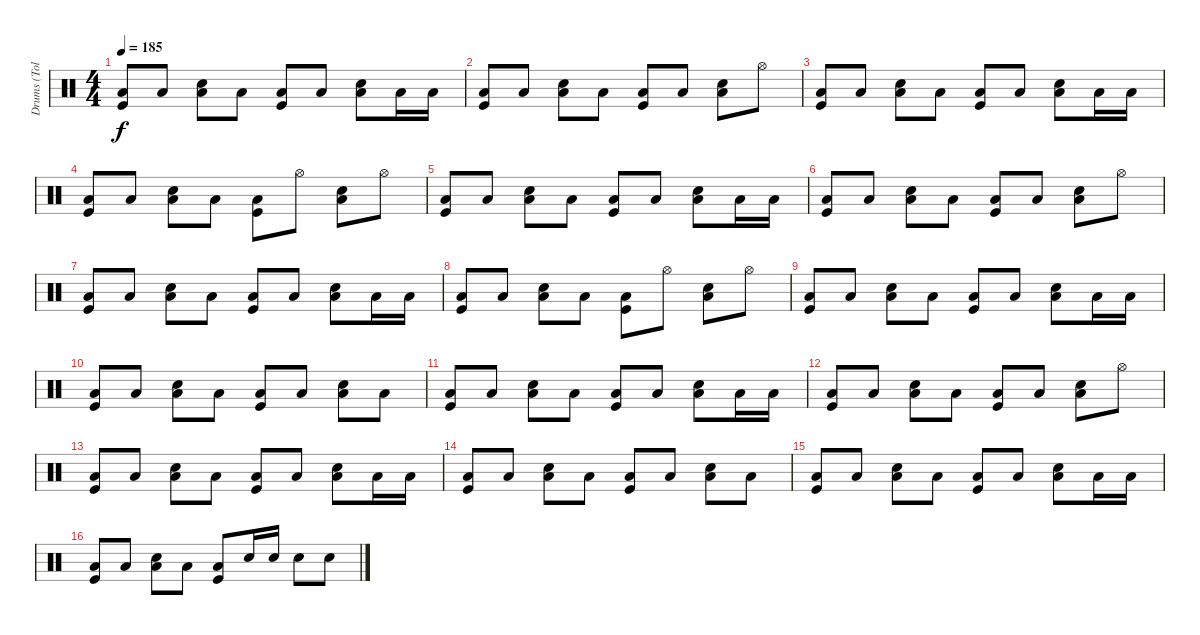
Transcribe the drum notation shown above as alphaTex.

\track ("Drums (Tolik)" "Drums (Tol") {instrument percussion}
\staff {score}
\articulation defaults
\ts (4 4)
\tempo 185
\clef neutral
\ks c
("Low Floor Tom (hit)" "Kick (hit)").8{dy f} "Low Floor Tom (hit)".8 ("Low Floor Tom (hit)" "Electric Snare (hit)").8 "Low Floor Tom (hit)".8 ("Low Floor Tom (hit)" "Kick (hit)").8 "Low Floor Tom (hit)".8 ("Low Floor Tom (hit)" "Electric Snare (hit)").8 "Low Floor Tom (hit)".16 "Low Floor Tom (hit)".16 |
("Low Floor Tom (hit)" "Kick (hit)").8 "Low Floor Tom (hit)".8 ("Low Floor Tom (hit)" "Electric Snare (hit)").8 "Low Floor Tom (hit)".8 ("Low Floor Tom (hit)" "Kick (hit)").8 "Low Floor Tom (hit)".8 ("Low Floor Tom (hit)" "Electric Snare (hit)").8 "Hi-Hat (open)".8 |
("Low Floor Tom (hit)" "Kick (hit)").8 "Low Floor Tom (hit)".8 ("Low Floor Tom (hit)" "Electric Snare (hit)").8 "Low Floor Tom (hit)".8 ("Low Floor Tom (hit)" "Kick (hit)").8 "Low Floor Tom (hit)".8 ("Low Floor Tom (hit)" "Electric Snare (hit)").8 "Low Floor Tom (hit)".16 "Low Floor Tom (hit)".16 |
("Low Floor Tom (hit)" "Kick (hit)").8 "Low Floor Tom (hit)".8 ("Low Floor Tom (hit)" "Electric Snare (hit)").8 "Low Floor Tom (hit)".8 ("Low Floor Tom (hit)" "Kick (hit)").8 "Hi-Hat (open)".8 ("Low Floor Tom (hit)" "Electric Snare (hit)").8 "Hi-Hat (open)".8 |
("Low Floor Tom (hit)" "Kick (hit)").8 "Low Floor Tom (hit)".8 ("Low Floor Tom (hit)" "Electric Snare (hit)").8 "Low Floor Tom (hit)".8 ("Low Floor Tom (hit)" "Kick (hit)").8 "Low Floor Tom (hit)".8 ("Low Floor Tom (hit)" "Electric Snare (hit)").8 "Low Floor Tom (hit)".16 "Low Floor Tom (hit)".16 |
("Low Floor Tom (hit)" "Kick (hit)").8 "Low Floor Tom (hit)".8 ("Low Floor Tom (hit)" "Electric Snare (hit)").8 "Low Floor Tom (hit)".8 ("Low Floor Tom (hit)" "Kick (hit)").8 "Low Floor Tom (hit)".8 ("Low Floor Tom (hit)" "Electric Snare (hit)").8 "Hi-Hat (open)".8 |
("Low Floor Tom (hit)" "Kick (hit)").8 "Low Floor Tom (hit)".8 ("Low Floor Tom (hit)" "Electric Snare (hit)").8 "Low Floor Tom (hit)".8 ("Low Floor Tom (hit)" "Kick (hit)").8 "Low Floor Tom (hit)".8 ("Low Floor Tom (hit)" "Electric Snare (hit)").8 "Low Floor Tom (hit)".16 "Low Floor Tom (hit)".16 |
("Low Floor Tom (hit)" "Kick (hit)").8 "Low Floor Tom (hit)".8 ("Low Floor Tom (hit)" "Electric Snare (hit)").8 "Low Floor Tom (hit)".8 ("Low Floor Tom (hit)" "Kick (hit)").8 "Hi-Hat (open)".8 ("Low Floor Tom (hit)" "Electric Snare (hit)").8 "Hi-Hat (open)".8 |
("Low Floor Tom (hit)" "Kick (hit)").8 "Low Floor Tom (hit)".8 ("Low Floor Tom (hit)" "Electric Snare (hit)").8 "Low Floor Tom (hit)".8 ("Low Floor Tom (hit)" "Kick (hit)").8 "Low Floor Tom (hit)".8 ("Low Floor Tom (hit)" "Electric Snare (hit)").8 "Low Floor Tom (hit)".16 "Low Floor Tom (hit)".16 |
("Low Floor Tom (hit)" "Kick (hit)").8 "Low Floor Tom (hit)".8 ("Low Floor Tom (hit)" "Electric Snare (hit)").8 "Low Floor Tom (hit)".8 ("Low Floor Tom (hit)" "Kick (hit)").8 "Low Floor Tom (hit)".8 ("Low Floor Tom (hit)" "Electric Snare (hit)").8 "Low Floor Tom (hit)".8 |
("Low Floor Tom (hit)" "Kick (hit)").8 "Low Floor Tom (hit)".8 ("Low Floor Tom (hit)" "Electric Snare (hit)").8 "Low Floor Tom (hit)".8 ("Low Floor Tom (hit)" "Kick (hit)").8 "Low Floor Tom (hit)".8 ("Low Floor Tom (hit)" "Electric Snare (hit)").8 "Low Floor Tom (hit)".16 "Low Floor Tom (hit)".16 |
("Low Floor Tom (hit)" "Kick (hit)").8 "Low Floor Tom (hit)".8 ("Low Floor Tom (hit)" "Electric Snare (hit)").8 "Low Floor Tom (hit)".8 ("Low Floor Tom (hit)" "Kick (hit)").8 "Low Floor Tom (hit)".8 ("Low Floor Tom (hit)" "Electric Snare (hit)").8 "Hi-Hat (open)".8 |
("Low Floor Tom (hit)" "Kick (hit)").8 "Low Floor Tom (hit)".8 ("Low Floor Tom (hit)" "Electric Snare (hit)").8 "Low Floor Tom (hit)".8 ("Low Floor Tom (hit)" "Kick (hit)").8 "Low Floor Tom (hit)".8 ("Low Floor Tom (hit)" "Electric Snare (hit)").8 "Low Floor Tom (hit)".16 "Low Floor Tom (hit)".16 |
("Low Floor Tom (hit)" "Kick (hit)").8 "Low Floor Tom (hit)".8 ("Low Floor Tom (hit)" "Electric Snare (hit)").8 "Low Floor Tom (hit)".8 ("Low Floor Tom (hit)" "Kick (hit)").8 "Low Floor Tom (hit)".8 ("Low Floor Tom (hit)" "Electric Snare (hit)").8 "Low Floor Tom (hit)".8 |
("Low Floor Tom (hit)" "Kick (hit)").8 "Low Floor Tom (hit)".8 ("Low Floor Tom (hit)" "Electric Snare (hit)").8 "Low Floor Tom (hit)".8 ("Low Floor Tom (hit)" "Kick (hit)").8 "Low Floor Tom (hit)".8 ("Low Floor Tom (hit)" "Electric Snare (hit)").8 "Low Floor Tom (hit)".16 "Low Floor Tom (hit)".16 |
("Low Floor Tom (hit)" "Kick (hit)").8 "Low Floor Tom (hit)".8 ("Low Floor Tom (hit)" "Electric Snare (hit)").8 "Low Floor Tom (hit)".8 ("Low Floor Tom (hit)" "Kick (hit)").8 "Electric Snare (hit)".16 "Electric Snare (hit)".16 "Electric Snare (hit)".8 "Electric Snare (hit)".8
